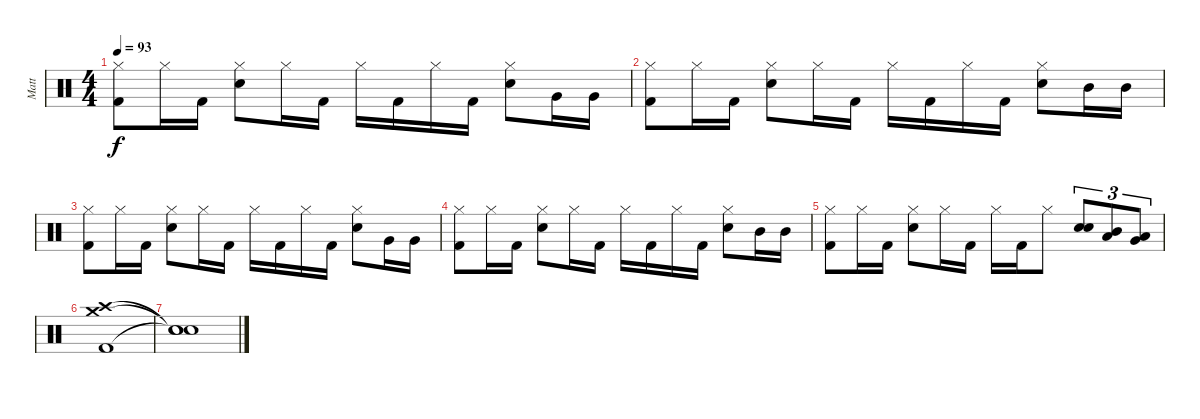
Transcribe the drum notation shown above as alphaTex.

\track ("Matt" "Matt") {instrument percussion}
\staff {score}
\articulation defaults
\ts (4 4)
\tempo 93
\clef neutral
\ks c
("Hi-Hat (closed)" "Kick (hit) 2").8{dy f} "Hi-Hat (closed)".16 "Kick (hit) 2".16 ("Hi-Hat (closed)" "Electric Snare (hit)").8 "Hi-Hat (closed)".16 "Kick (hit) 2".16 "Hi-Hat (closed)".16 "Kick (hit) 2".16 "Hi-Hat (closed)".16 "Kick (hit) 2".16 ("Hi-Hat (closed)" "Electric Snare (hit)").8 "Very Low Tom (hit)".16 "Very Low Tom (hit)".16 |
("Hi-Hat (closed)" "Kick (hit) 2").8 "Hi-Hat (closed)".16 "Kick (hit) 2".16 ("Hi-Hat (closed)" "Electric Snare (hit)").8 "Hi-Hat (closed)".16 "Kick (hit) 2".16 "Hi-Hat (closed)".16 "Kick (hit) 2".16 "Hi-Hat (closed)".16 "Kick (hit) 2".16 ("Hi-Hat (closed)" "Electric Snare (hit)").8 "Mid Tom (hit)".16 "Mid Tom (hit)".16 |
("Hi-Hat (closed)" "Kick (hit) 2").8 "Hi-Hat (closed)".16 "Kick (hit) 2".16 ("Hi-Hat (closed)" "Electric Snare (hit)").8 "Hi-Hat (closed)".16 "Kick (hit) 2".16 "Hi-Hat (closed)".16 "Kick (hit) 2".16 "Hi-Hat (closed)".16 "Kick (hit) 2".16 ("Hi-Hat (closed)" "Electric Snare (hit)").8 "Very Low Tom (hit)".16 "Very Low Tom (hit)".16 |
("Hi-Hat (closed)" "Kick (hit) 2").8 "Hi-Hat (closed)".16 "Kick (hit) 2".16 ("Hi-Hat (closed)" "Electric Snare (hit)").8 "Hi-Hat (closed)".16 "Kick (hit) 2".16 "Hi-Hat (closed)".16 "Kick (hit) 2".16 "Hi-Hat (closed)".16 "Kick (hit) 2".16 ("Hi-Hat (closed)" "Electric Snare (hit)").8 "Mid Tom (hit)".16 "Mid Tom (hit)".16 |
("Hi-Hat (closed)" "Kick (hit) 2").8 "Hi-Hat (closed)".16 "Kick (hit) 2".16 ("Hi-Hat (closed)" "Electric Snare (hit)").8 "Hi-Hat (closed)".16 "Kick (hit) 2".16 "Hi-Hat (closed)".16 "Kick (hit) 2".16 "Hi-Hat (closed)".8 ("Electric Snare (hit)" "Electric Snare (hit)").8{tu (3 2)} ("Mid Tom (hit)" "Low Tom (hit)").8{tu (3 2)} ("Low Tom (hit)" "Very Low Tom (hit)").8{tu (3 2)} |
("Crash high (hit)" "Crash medium (hit)" "Kick (hit) 2").1{volume 0} |
("Snare (hit)"{t} "Snare (hit)"{t} "Snare (hit)"{t}).1
